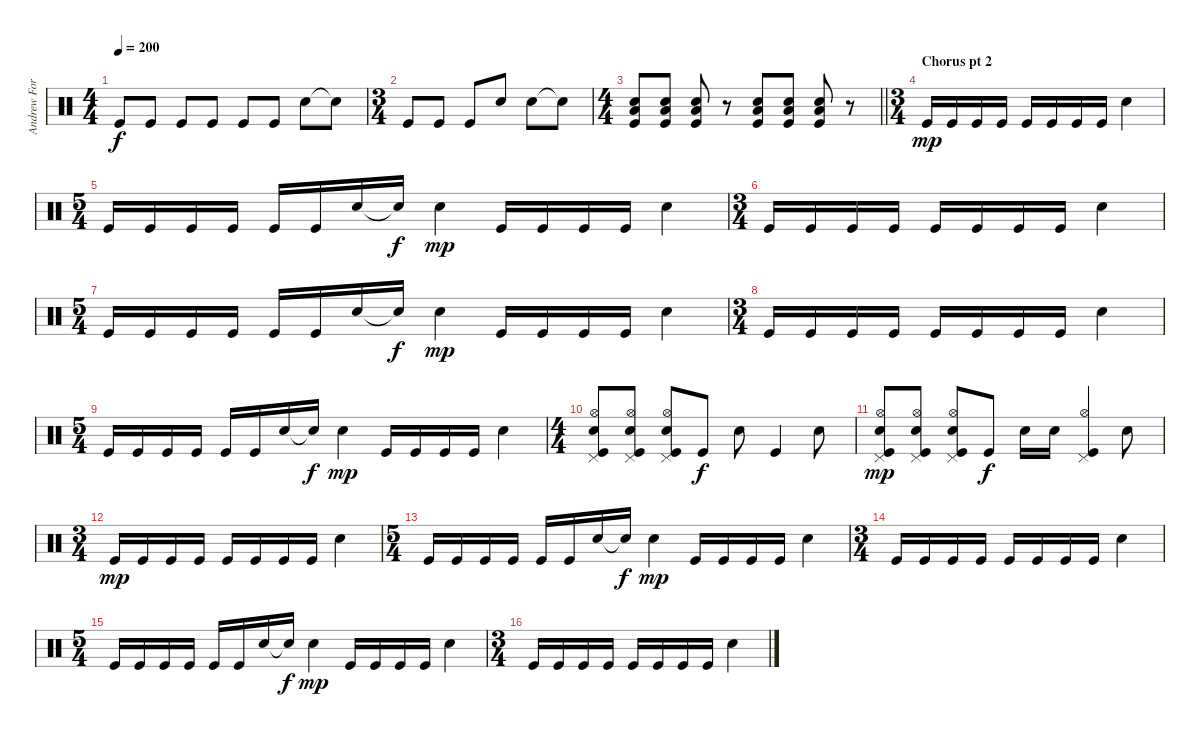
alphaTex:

\track ("Andrew Forsman" "Andrew For") {instrument percussion}
\staff {score}
\articulation defaults
\ts (4 4)
\tempo 200
\clef neutral
\ks c "Kick (hit)".8{dy f} "Kick (hit)".8 "Kick (hit)".8 "Kick (hit)".8 "Kick (hit)".8 "Kick (hit)".8 "Electric Snare (hit)".8 "Snare (hit)"{t}.8
|
\ts (3 4)
"Kick (hit)".8 "Kick (hit)".8 "Kick (hit)".8 "Electric Snare (hit)".8 "Electric Snare (hit)".8 "Snare (hit)"{t}.8 |
\ts (4 4)
\barLineRight lightlight
("Low Floor Tom (hit)" "Electric Snare (hit)" "Kick (hit)").8 ("Low Floor Tom (hit)" "Electric Snare (hit)" "Kick (hit)").8 ("Low Floor Tom (hit)" "Electric Snare (hit)" "Kick (hit)").8 r.8 ("Low Floor Tom (hit)" "Electric Snare (hit)" "Kick (hit)").8 ("Low Floor Tom (hit)" "Electric Snare (hit)" "Kick (hit)").8 ("Low Floor Tom (hit)" "Electric Snare (hit)" "Kick (hit)").8 r.8 |
\ts (3 4)
\section ("" "Chorus pt 2")
"Kick (hit)".16{dy mp} "Kick (hit)".16 "Kick (hit)".16 "Kick (hit)".16 "Kick (hit)".16 "Kick (hit)".16 "Kick (hit)".16 "Kick (hit)".16 "Electric Snare (hit)".4 |
\ts (5 4)
"Kick (hit)".16 "Kick (hit)".16 "Kick (hit)".16 "Kick (hit)".16 "Kick (hit)".16 "Kick (hit)".16 "Electric Snare (hit)".16 "Snare (hit)"{t}.16{dy f} "Electric Snare (hit)".4{dy mp} "Kick (hit)".16 "Kick (hit)".16 "Kick (hit)".16 "Kick (hit)".16 "Electric Snare (hit)".4 |
\ts (3 4)
"Kick (hit)".16 "Kick (hit)".16 "Kick (hit)".16 "Kick (hit)".16 "Kick (hit)".16 "Kick (hit)".16 "Kick (hit)".16 "Kick (hit)".16 "Electric Snare (hit)".4 |
\ts (5 4)
"Kick (hit)".16 "Kick (hit)".16 "Kick (hit)".16 "Kick (hit)".16 "Kick (hit)".16 "Kick (hit)".16 "Electric Snare (hit)".16 "Snare (hit)"{t}.16{dy f} "Electric Snare (hit)".4{dy mp} "Kick (hit)".16 "Kick (hit)".16 "Kick (hit)".16 "Kick (hit)".16 "Electric Snare (hit)".4 |
\ts (3 4)
"Kick (hit)".16 "Kick (hit)".16 "Kick (hit)".16 "Kick (hit)".16 "Kick (hit)".16 "Kick (hit)".16 "Kick (hit)".16 "Kick (hit)".16 "Electric Snare (hit)".4 |
\ts (5 4)
"Kick (hit)".16 "Kick (hit)".16 "Kick (hit)".16 "Kick (hit)".16 "Kick (hit)".16 "Kick (hit)".16 "Electric Snare (hit)".16 "Snare (hit)"{t}.16{dy f} "Electric Snare (hit)".4{dy mp} "Kick (hit)".16 "Kick (hit)".16 "Kick (hit)".16 "Kick (hit)".16 "Electric Snare (hit)".4 |
\ts (4 4)
("Hi-Hat (open)" "Pedal Hi-Hat (hit)" "Electric Snare (hit)" "Kick (hit)").8 ("Hi-Hat (open)" "Pedal Hi-Hat (hit)" "Electric Snare (hit)" "Kick (hit)").8 ("Hi-Hat (open)" "Pedal Hi-Hat (hit)" "Electric Snare (hit)" "Kick (hit)").8 "Kick (hit)".8{dy f} "Electric Snare (hit)".8 "Kick (hit)".4 "Electric Snare (hit)".8 |
("Hi-Hat (open)" "Pedal Hi-Hat (hit)" "Electric Snare (hit)" "Kick (hit)").8{dy mp} ("Hi-Hat (open)" "Pedal Hi-Hat (hit)" "Electric Snare (hit)" "Kick (hit)").8 ("Hi-Hat (open)" "Pedal Hi-Hat (hit)" "Electric Snare (hit)" "Kick (hit)").8 "Kick (hit)".8{dy f} "Electric Snare (hit)".16 "Electric Snare (hit)".16 ("Hi-Hat (open)" "Pedal Hi-Hat (hit)" "Kick (hit)").4 "Electric Snare (hit)".8 |
\ts (3 4)
"Kick (hit)".16{dy mp} "Kick (hit)".16 "Kick (hit)".16 "Kick (hit)".16 "Kick (hit)".16 "Kick (hit)".16 "Kick (hit)".16 "Kick (hit)".16 "Electric Snare (hit)".4 |
\ts (5 4)
"Kick (hit)".16 "Kick (hit)".16 "Kick (hit)".16 "Kick (hit)".16 "Kick (hit)".16 "Kick (hit)".16 "Electric Snare (hit)".16 "Snare (hit)"{t}.16{dy f} "Electric Snare (hit)".4{dy mp} "Kick (hit)".16 "Kick (hit)".16 "Kick (hit)".16 "Kick (hit)".16 "Electric Snare (hit)".4 |
\ts (3 4)
"Kick (hit)".16 "Kick (hit)".16 "Kick (hit)".16 "Kick (hit)".16 "Kick (hit)".16 "Kick (hit)".16 "Kick (hit)".16 "Kick (hit)".16 "Electric Snare (hit)".4 |
\ts (5 4)
"Kick (hit)".16 "Kick (hit)".16 "Kick (hit)".16 "Kick (hit)".16 "Kick (hit)".16 "Kick (hit)".16 "Electric Snare (hit)".16 "Snare (hit)"{t}.16{dy f} "Electric Snare (hit)".4{dy mp} "Kick (hit)".16 "Kick (hit)".16 "Kick (hit)".16 "Kick (hit)".16 "Electric Snare (hit)".4 |
\ts (3 4)
"Kick (hit)".16 "Kick (hit)".16 "Kick (hit)".16 "Kick (hit)".16 "Kick (hit)".16 "Kick (hit)".16 "Kick (hit)".16 "Kick (hit)".16 "Electric Snare (hit)".4
